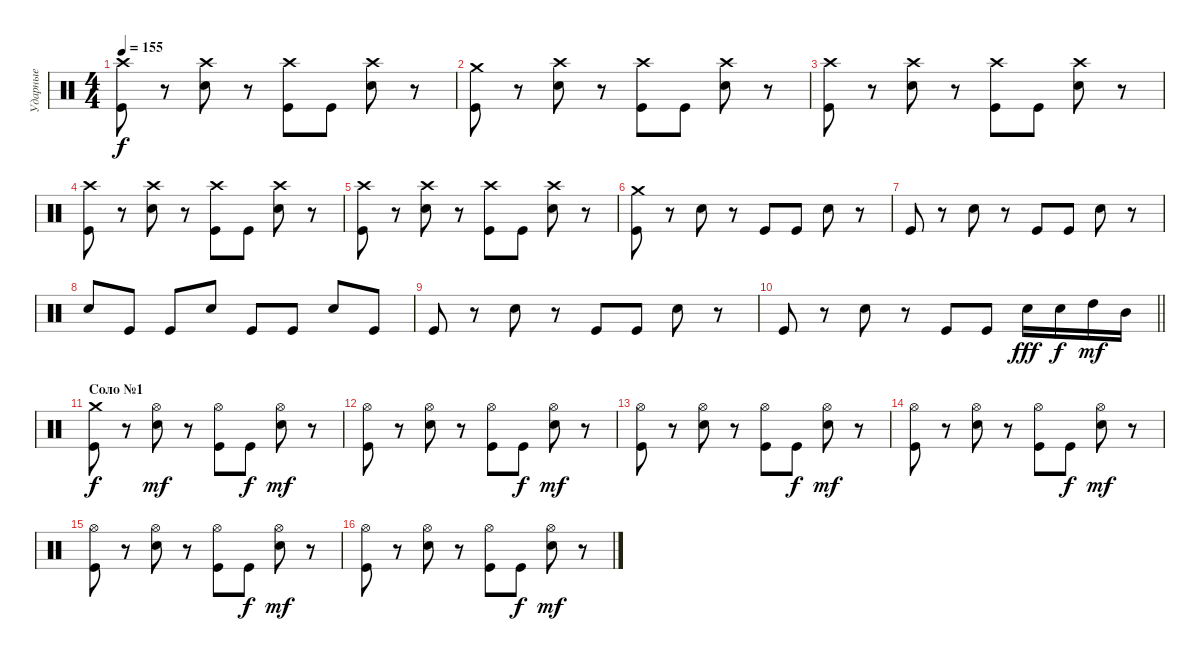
\track ("Ударные" "Ударные") {instrument percussion}
\staff {score}
\articulation defaults
\ts (4 4)
\tempo 155
\clef neutral
\ks c
("Crash high (hit)" "Kick (hit)").8{dy f} r.8 ("Crash high (hit)" "Electric Snare (hit)").8 r.8 ("Crash high (hit)" "Kick (hit)").8 "Kick (hit)".8 ("Crash high (hit)" "Electric Snare (hit)").8 r.8 |
("Crash medium (hit)" "Kick (hit)").8 r.8 ("Crash high (hit)" "Electric Snare (hit)").8 r.8 ("Crash high (hit)" "Kick (hit)").8 "Kick (hit)".8 ("Crash high (hit)" "Electric Snare (hit)").8 r.8 |
("Crash high (hit)" "Kick (hit)").8 r.8 ("Crash high (hit)" "Electric Snare (hit)").8 r.8 ("Crash high (hit)" "Kick (hit)").8 "Kick (hit)".8 ("Crash high (hit)" "Electric Snare (hit)").8 r.8 |
("Crash high (hit)" "Kick (hit)").8 r.8 ("Crash high (hit)" "Electric Snare (hit)").8 r.8 ("Crash high (hit)" "Kick (hit)").8 "Kick (hit)".8 ("Crash high (hit)" "Electric Snare (hit)").8 r.8 |
("Crash high (hit)" "Kick (hit)").8 r.8 ("Crash high (hit)" "Electric Snare (hit)").8 r.8 ("Crash high (hit)" "Kick (hit)").8 "Kick (hit)".8 ("Crash high (hit)" "Electric Snare (hit)").8 r.8 |
("Crash medium (hit)" "Kick (hit)").8 r.8 "Electric Snare (hit)".8 r.8 "Kick (hit)".8 "Kick (hit)".8 "Electric Snare (hit)".8 r.8 |
"Kick (hit)".8 r.8 "Electric Snare (hit)".8 r.8 "Kick (hit)".8 "Kick (hit)".8 "Electric Snare (hit)".8 r.8 |
"Electric Snare (hit)".8 "Kick (hit)".8 "Kick (hit)".8 "Electric Snare (hit)".8 "Kick (hit)".8 "Kick (hit)".8 "Electric Snare (hit)".8 "Kick (hit)".8 |
"Kick (hit)".8 r.8 "Electric Snare (hit)".8 r.8 "Kick (hit)".8 "Kick (hit)".8 "Electric Snare (hit)".8 r.8 |
\barLineRight lightlight "Kick (hit)".8
r.8 "Electric Snare (hit)".8 r.8 "Kick (hit)".8 "Kick (hit)".8 "Electric Snare (hit)".16{dy fff} "Electric Snare (hit)".16{dy f} "High Tom (hit)".16{dy mf} "Mid Tom (hit)".16 |
\section ("" "Соло №1")
("Crash medium (hit)" "Kick (hit)").8{dy f} r.8 ("Hi-Hat (open)" "Electric Snare (hit)").8{dy mf} r.8 ("Hi-Hat (open)" "Kick (hit)").8 "Kick (hit)".8{dy f} ("Hi-Hat (open)" "Electric Snare (hit)").8{dy mf} r.8 |
("Hi-Hat (open)" "Kick (hit)").8 r.8 ("Hi-Hat (open)" "Electric Snare (hit)").8 r.8 ("Hi-Hat (open)" "Kick (hit)").8 "Kick (hit)".8{dy f} ("Hi-Hat (open)" "Electric Snare (hit)").8{dy mf} r.8 |
("Hi-Hat (open)" "Kick (hit)").8 r.8 ("Hi-Hat (open)" "Electric Snare (hit)").8 r.8 ("Hi-Hat (open)" "Kick (hit)").8 "Kick (hit)".8{dy f} ("Hi-Hat (open)" "Electric Snare (hit)").8{dy mf} r.8 |
("Hi-Hat (open)" "Kick (hit)").8 r.8 ("Hi-Hat (open)" "Electric Snare (hit)").8 r.8 ("Hi-Hat (open)" "Kick (hit)").8 "Kick (hit)".8{dy f} ("Hi-Hat (open)" "Electric Snare (hit)").8{dy mf} r.8 |
("Hi-Hat (open)" "Kick (hit)").8 r.8 ("Hi-Hat (open)" "Electric Snare (hit)").8 r.8 ("Hi-Hat (open)" "Kick (hit)").8 "Kick (hit)".8{dy f} ("Hi-Hat (open)" "Electric Snare (hit)").8{dy mf} r.8 |
("Hi-Hat (open)" "Kick (hit)").8 r.8 ("Hi-Hat (open)" "Electric Snare (hit)").8 r.8 ("Hi-Hat (open)" "Kick (hit)").8 "Kick (hit)".8{dy f} ("Hi-Hat (open)" "Electric Snare (hit)").8{dy mf} r.8
